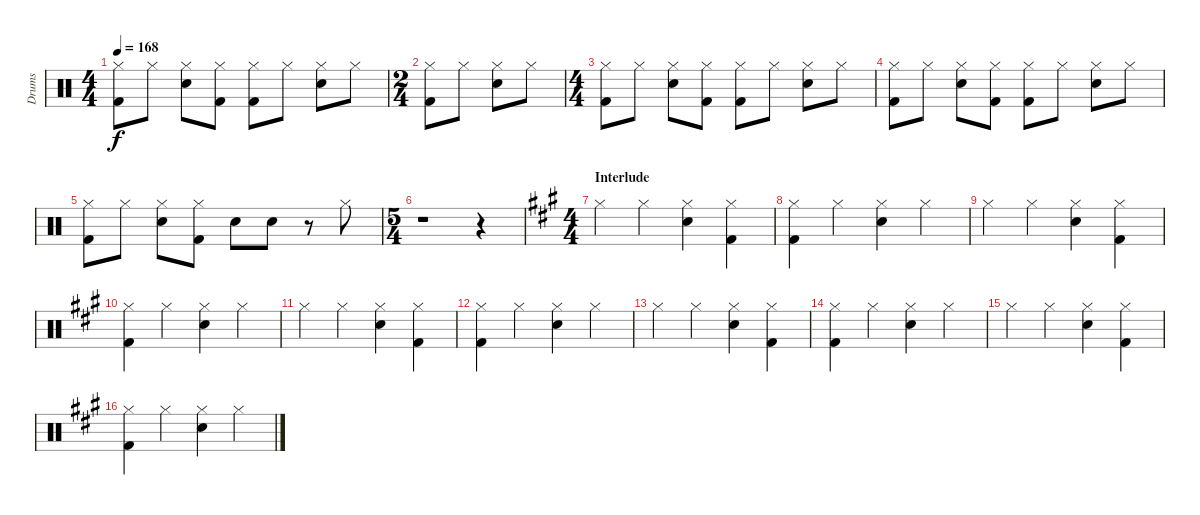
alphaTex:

\track ("Drums" "Drums") {instrument percussion}
\staff {score}
\articulation defaults
\ts (4 4)
\tempo 168
\clef neutral
\ks c
("Kick (hit) 2" "Hi-Hat (closed)").8{dy f} "Hi-Hat (closed)".8 ("Snare (hit) 2" "Hi-Hat (closed)").8 ("Kick (hit) 2" "Hi-Hat (closed)").8 ("Kick (hit) 2" "Hi-Hat (closed)").8 "Hi-Hat (closed)".8 ("Snare (hit) 2" "Hi-Hat (closed)").8 "Hi-Hat (closed)".8 |
\ts (2 4)
("Kick (hit) 2" "Hi-Hat (closed)").8 "Hi-Hat (closed)".8 ("Snare (hit) 2" "Hi-Hat (closed)").8 "Hi-Hat (closed)".8 |
\ts (4 4)
("Kick (hit) 2" "Hi-Hat (closed)").8 "Hi-Hat (closed)".8 ("Snare (hit) 2" "Hi-Hat (closed)").8 ("Kick (hit) 2" "Hi-Hat (closed)").8 ("Kick (hit) 2" "Hi-Hat (closed)").8 "Hi-Hat (closed)".8 ("Snare (hit) 2" "Hi-Hat (closed)").8 "Hi-Hat (closed)".8 |
("Kick (hit) 2" "Hi-Hat (closed)").8 "Hi-Hat (closed)".8 ("Snare (hit) 2" "Hi-Hat (closed)").8 ("Kick (hit) 2" "Hi-Hat (closed)").8 ("Kick (hit) 2" "Hi-Hat (closed)").8 "Hi-Hat (closed)".8 ("Snare (hit) 2" "Hi-Hat (closed)").8 "Hi-Hat (closed)".8 |
("Kick (hit) 2" "Hi-Hat (closed)").8 "Hi-Hat (closed)".8 ("Snare (hit) 2" "Hi-Hat (closed)").8 ("Kick (hit) 2" "Hi-Hat (closed)").8 "Snare (hit) 2".8 "Snare (hit) 2".8 r.8 "Hi-Hat (closed)".8 |
\ts (5 4)
r.1 r.4 |
\ts (4 4)
\section ("" "Interlude")
\ks a "Hi-Hat (closed)".4 "Hi-Hat (closed)".4
("Snare (hit) 2" "Hi-Hat (closed)").4 ("Kick (hit) 2" "Hi-Hat (closed)").4 |
("Kick (hit) 2" "Hi-Hat (closed)").4 "Hi-Hat (closed)".4 ("Snare (hit) 2" "Hi-Hat (closed)").4 "Hi-Hat (closed)".4 |
"Hi-Hat (closed)".4 "Hi-Hat (closed)".4 ("Snare (hit) 2" "Hi-Hat (closed)").4 ("Kick (hit) 2" "Hi-Hat (closed)").4 |
("Kick (hit) 2" "Hi-Hat (closed)").4 "Hi-Hat (closed)".4 ("Snare (hit) 2" "Hi-Hat (closed)").4 "Hi-Hat (closed)".4 |
"Hi-Hat (closed)".4 "Hi-Hat (closed)".4 ("Snare (hit) 2" "Hi-Hat (closed)").4 ("Kick (hit) 2" "Hi-Hat (closed)").4 |
("Kick (hit) 2" "Hi-Hat (closed)").4 "Hi-Hat (closed)".4 ("Snare (hit) 2" "Hi-Hat (closed)").4 "Hi-Hat (closed)".4 |
"Hi-Hat (closed)".4 "Hi-Hat (closed)".4 ("Snare (hit) 2" "Hi-Hat (closed)").4 ("Kick (hit) 2" "Hi-Hat (closed)").4 |
("Kick (hit) 2" "Hi-Hat (closed)").4 "Hi-Hat (closed)".4 ("Snare (hit) 2" "Hi-Hat (closed)").4 "Hi-Hat (closed)".4 |
"Hi-Hat (closed)".4 "Hi-Hat (closed)".4 ("Snare (hit) 2" "Hi-Hat (closed)").4 ("Kick (hit) 2" "Hi-Hat (closed)").4 |
("Kick (hit) 2" "Hi-Hat (closed)").4 "Hi-Hat (closed)".4 ("Snare (hit) 2" "Hi-Hat (closed)").4 "Hi-Hat (closed)".4
